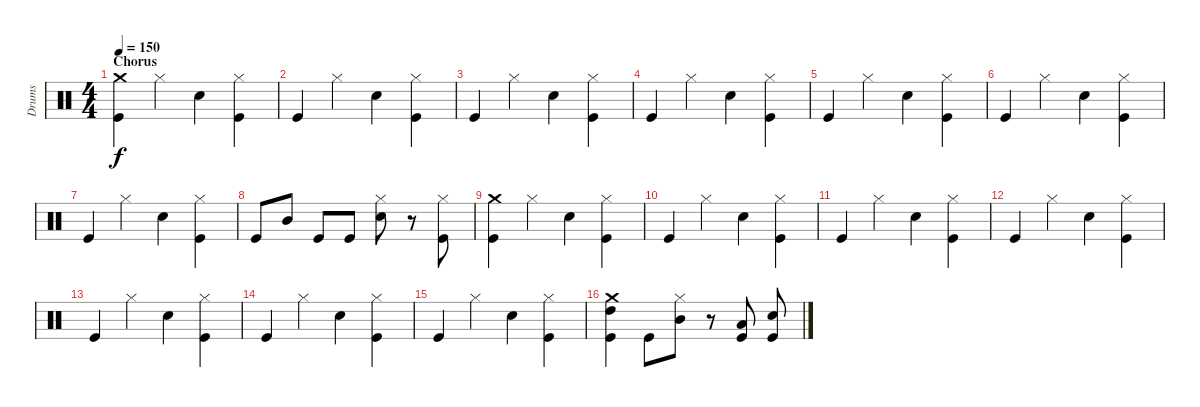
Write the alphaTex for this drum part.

\track ("Drums" "Drums") {instrument percussion}
\staff {score}
\articulation defaults
\ts (4 4)
\section ("" "Chorus")
\tempo 150
\clef neutral
\ks c
("Crash medium (hit)" "Kick (hit)").4{dy f} "Hi-Hat (closed)".4 "Electric Snare (hit)".4 ("Hi-Hat (closed)" "Kick (hit)").4 |
"Kick (hit)".4 "Hi-Hat (closed)".4 "Electric Snare (hit)".4 ("Hi-Hat (closed)" "Kick (hit)").4 |
"Kick (hit)".4 "Hi-Hat (closed)".4 "Electric Snare (hit)".4 ("Hi-Hat (closed)" "Kick (hit)").4 |
"Kick (hit)".4 "Hi-Hat (closed)".4 "Electric Snare (hit)".4 ("Hi-Hat (closed)" "Kick (hit)").4 |
"Kick (hit)".4 "Hi-Hat (closed)".4 "Electric Snare (hit)".4 ("Hi-Hat (closed)" "Kick (hit)").4 |
"Kick (hit)".4 "Hi-Hat (closed)".4 "Electric Snare (hit)".4 ("Hi-Hat (closed)" "Kick (hit)").4 |
"Kick (hit)".4 "Hi-Hat (closed)".4 "Electric Snare (hit)".4 ("Hi-Hat (closed)" "Kick (hit)").4 |
"Kick (hit)".8 "Mid Tom (hit)".8 "Kick (hit)".8 "Kick (hit)".8 ("Hi-Hat (closed)" "Electric Snare (hit)").8 r.8 ("Hi-Hat (closed)" "Kick (hit)").8 |
("Crash medium (hit)" "Kick (hit)").4 "Hi-Hat (closed)".4 "Electric Snare (hit)".4 ("Hi-Hat (closed)" "Kick (hit)").4 |
"Kick (hit)".4 "Hi-Hat (closed)".4 "Electric Snare (hit)".4 ("Hi-Hat (closed)" "Kick (hit)").4 |
"Kick (hit)".4 "Hi-Hat (closed)".4 "Electric Snare (hit)".4 ("Hi-Hat (closed)" "Kick (hit)").4 |
"Kick (hit)".4 "Hi-Hat (closed)".4 "Electric Snare (hit)".4 ("Hi-Hat (closed)" "Kick (hit)").4 |
"Kick (hit)".4 "Hi-Hat (closed)".4 "Electric Snare (hit)".4 ("Hi-Hat (closed)" "Kick (hit)").4 |
"Kick (hit)".4 "Hi-Hat (closed)".4 "Electric Snare (hit)".4 ("Hi-Hat (closed)" "Kick (hit)").4 |
"Kick (hit)".4 "Hi-Hat (closed)".4 "Electric Snare (hit)".4 ("Hi-Hat (closed)" "Kick (hit)").4 |
("Crash medium (hit)" "High Tom (hit)" "Kick (hit)").4 "Kick (hit)".8 ("Hi-Hat (closed)" "Mid Tom (hit)").8 r.8 ("Low Floor Tom (hit)" "Kick (hit)").8 ("Electric Snare (hit)" "Kick (hit)").8
